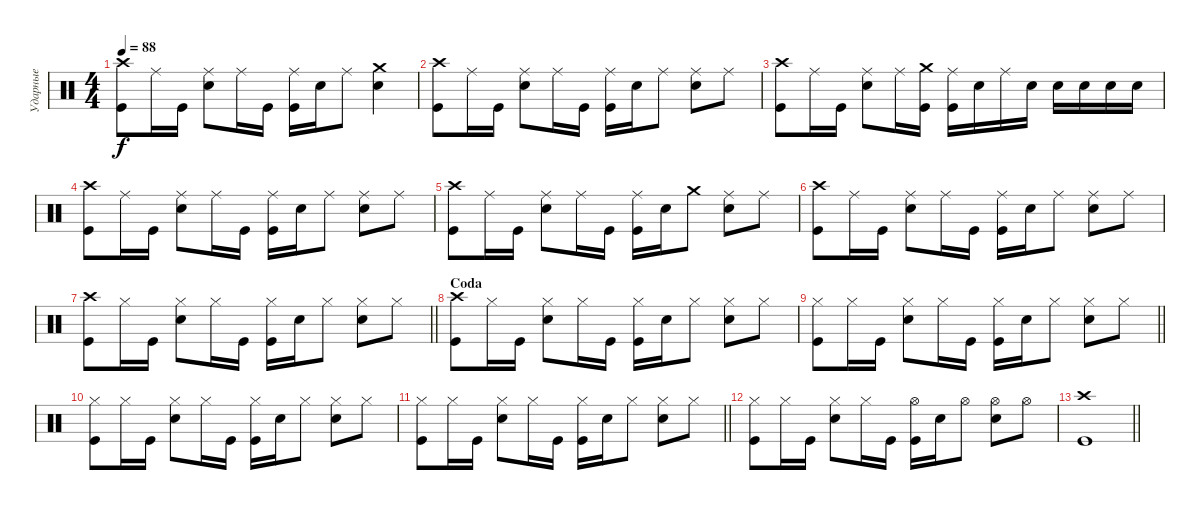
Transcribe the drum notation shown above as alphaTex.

\track ("Ударные" "Ударные") {instrument percussion}
\staff {score}
\articulation defaults
\ts (4 4)
\tempo 88
\clef neutral
\ks c
("Crash high (hit)" "Kick (hit)").8{dy f} "Ride (middle)".16 "Kick (hit)".16 ("Ride (middle)" "Snare (hit) 2").8 "Ride (middle)".16 "Kick (hit)".16 ("Ride (middle)" "Kick (hit)").16 "Snare (hit) 2".16 "Ride (middle)".8 ("Crash medium (hit)" "Snare (hit) 2").4 |
("Crash high (hit)" "Kick (hit)").8 "Ride (middle)".16 "Kick (hit)".16 ("Ride (middle)" "Snare (hit) 2").8 "Ride (middle)".16 "Kick (hit)".16 ("Ride (middle)" "Kick (hit)").16 "Snare (hit) 2".16 "Ride (middle)".8 ("Ride (middle)" "Snare (hit) 2").8 "Ride (middle)".8 |
("Crash high (hit)" "Kick (hit)").8 "Ride (middle)".16 "Kick (hit)".16 ("Ride (middle)" "Snare (hit) 2").8 "Ride (middle)".16 ("Crash medium (hit)" "Kick (hit)").16 ("Ride (middle)" "Kick (hit)").16 "Snare (hit) 2".16 "Ride (middle)".16 "Snare (hit) 2".16 "Snare (hit) 2".16 "Snare (hit) 2".16 "Snare (hit) 2".16 "Snare (hit) 2".16 |
("Crash high (hit)" "Kick (hit)").8 "Ride (middle)".16 "Kick (hit)".16 ("Ride (middle)" "Snare (hit) 2").8 "Ride (middle)".16 "Kick (hit)".16 ("Ride (middle)" "Kick (hit)").16 "Snare (hit) 2".16 "Ride (middle)".8 ("Ride (middle)" "Snare (hit) 2").8 "Ride (middle)".8 |
("Crash high (hit)" "Kick (hit)").8 "Ride (middle)".16 "Kick (hit)".16 ("Ride (middle)" "Snare (hit) 2").8 "Ride (middle)".16 "Kick (hit)".16 ("Ride (middle)" "Kick (hit)").16 "Snare (hit) 2".16 "Crash medium (hit)".8 ("Ride (middle)" "Snare (hit) 2").8 "Ride (middle)".8 |
("Crash high (hit)" "Kick (hit)").8 "Ride (middle)".16 "Kick (hit)".16 ("Ride (middle)" "Snare (hit) 2").8 "Ride (middle)".16 "Kick (hit)".16 ("Ride (middle)" "Kick (hit)").16 "Snare (hit) 2".16 "Ride (middle)".8 ("Ride (middle)" "Snare (hit) 2").8 "Ride (middle)".8 |
\barLineRight lightlight
("Crash high (hit)" "Kick (hit)").8 "Hi-Hat (closed)".16 "Kick (hit)".16 ("Hi-Hat (closed)" "Snare (hit) 2").8 "Hi-Hat (closed)".16 "Kick (hit)".16 ("Hi-Hat (closed)" "Kick (hit)").16 "Snare (hit) 2".16 "Hi-Hat (closed)".8 ("Hi-Hat (closed)" "Snare (hit) 2").8 "Hi-Hat (closed)".8 |
\section ("" "Coda")
("Crash high (hit)" "Kick (hit)").8 "Hi-Hat (closed)".16 "Kick (hit)".16 ("Hi-Hat (closed)" "Snare (hit) 2").8 "Hi-Hat (closed)".16 "Kick (hit)".16 ("Hi-Hat (closed)" "Kick (hit)").16 "Snare (hit) 2".16 "Hi-Hat (closed)".8 ("Hi-Hat (closed)" "Snare (hit) 2").8 "Hi-Hat (closed)".8 |
\barLineRight lightlight
("Hi-Hat (closed)" "Kick (hit)").8 "Hi-Hat (closed)".16 "Kick (hit)".16 ("Hi-Hat (closed)" "Snare (hit) 2").8 "Hi-Hat (closed)".16 "Kick (hit)".16 ("Hi-Hat (closed)" "Kick (hit)").16 "Snare (hit) 2".16 "Hi-Hat (closed)".8 ("Hi-Hat (closed)" "Snare (hit) 2").8 "Hi-Hat (closed)".8 |
("Hi-Hat (closed)" "Kick (hit)").8 "Hi-Hat (closed)".16 "Kick (hit)".16 ("Hi-Hat (closed)" "Snare (hit) 2").8 "Hi-Hat (closed)".16 "Kick (hit)".16 ("Hi-Hat (closed)" "Kick (hit)").16 "Snare (hit) 2".16 "Hi-Hat (closed)".8 ("Hi-Hat (closed)" "Snare (hit) 2").8 "Hi-Hat (closed)".8 |
\barLineRight lightlight
("Hi-Hat (closed)" "Kick (hit)").8 "Hi-Hat (closed)".16 "Kick (hit)".16 ("Hi-Hat (closed)" "Snare (hit) 2").8 "Hi-Hat (closed)".16 "Kick (hit)".16 ("Hi-Hat (closed)" "Kick (hit)").16 "Snare (hit) 2".16 "Hi-Hat (closed)".8 ("Hi-Hat (closed)" "Snare (hit) 2").8 "Hi-Hat (closed)".8 |
("Hi-Hat (closed)" "Kick (hit)").8 "Hi-Hat (closed)".16 "Kick (hit)".16 ("Hi-Hat (closed)" "Snare (hit) 2").8 "Hi-Hat (closed)".16 "Kick (hit)".16 ("Hi-Hat (open)" "Kick (hit)").16 "Snare (hit) 2".16 "Hi-Hat (open)".8 ("Hi-Hat (open)" "Snare (hit) 2").8 "Hi-Hat (open)".8 |
\barLineRight lightlight
("Crash high (hit)" "Kick (hit)").1
